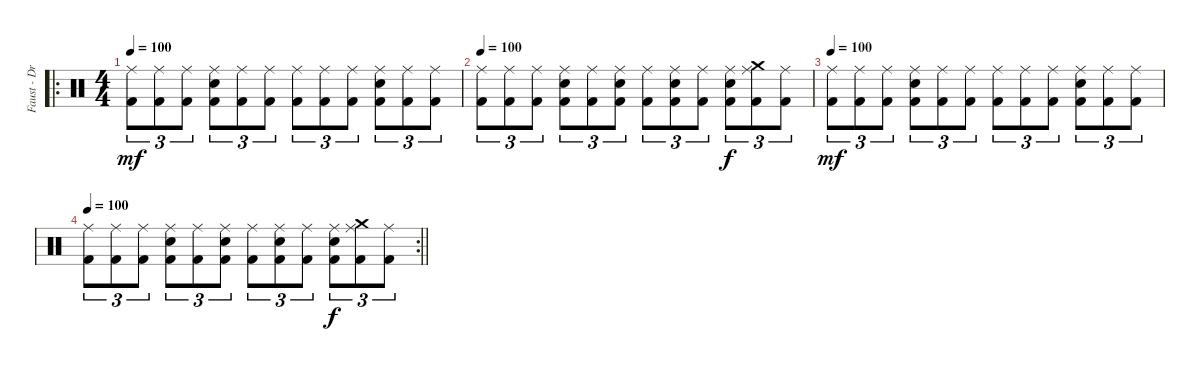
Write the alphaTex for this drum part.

\track ("Faust - Drums" "Faust - Dr") {instrument percussion}
\staff {score}
\articulation defaults
\ro
\ts (4 4)
\tempo 100
\clef neutral
\ks c
("Ride (middle)" "Kick (hit) 2").8{tu (3 2) dy mf} ("Ride (middle)" "Kick (hit) 2").8{tu (3 2)} ("Ride (middle)" "Kick (hit) 2").8{tu (3 2)} ("Electric Snare (hit)" "Ride (middle)" "Kick (hit) 2").8{tu (3 2)} ("Ride (middle)" "Kick (hit) 2").8{tu (3 2)} ("Ride (middle)" "Kick (hit) 2").8{tu (3 2)} ("Ride (middle)" "Kick (hit) 2").8{tu (3 2)} ("Ride (middle)" "Kick (hit) 2").8{tu (3 2)} ("Ride (middle)" "Kick (hit) 2").8{tu (3 2)} ("Electric Snare (hit)" "Ride (middle)" "Kick (hit) 2").8{tu (3 2)} ("Ride (middle)" "Kick (hit) 2").8{tu (3 2)} ("Ride (middle)" "Kick (hit) 2").8{tu (3 2)} |
\tempo 100
("Ride (middle)" "Kick (hit) 2").8{tu (3 2)} ("Ride (middle)" "Kick (hit) 2").8{tu (3 2)} ("Ride (middle)" "Kick (hit) 2").8{tu (3 2)} ("Electric Snare (hit)" "Ride (middle)" "Kick (hit) 2").8{tu (3 2)} ("Ride (middle)" "Kick (hit) 2").8{tu (3 2)} ("Electric Snare (hit)" "Ride (middle)" "Kick (hit) 2").8{tu (3 2)} ("Ride (middle)" "Kick (hit) 2").8{tu (3 2)} ("Electric Snare (hit)" "Ride (middle)" "Kick (hit) 2").8{tu (3 2)} ("Ride (middle)" "Kick (hit) 2").8{tu (3 2)} ("Electric Snare (hit)" "Ride (middle)" "Kick (hit) 2").8{tu (3 2) dy f} ("Crash medium (hit)" "Ride (middle)" "Kick (hit) 2").8{tu (3 2)} ("Ride (middle)" "Kick (hit) 2").8{tu (3 2)} |
\tempo 100
("Ride (middle)" "Kick (hit) 2").8{tu (3 2) dy mf} ("Ride (middle)" "Kick (hit) 2").8{tu (3 2)} ("Ride (middle)" "Kick (hit) 2").8{tu (3 2)} ("Electric Snare (hit)" "Ride (middle)" "Kick (hit) 2").8{tu (3 2)} ("Ride (middle)" "Kick (hit) 2").8{tu (3 2)} ("Ride (middle)" "Kick (hit) 2").8{tu (3 2)} ("Ride (middle)" "Kick (hit) 2").8{tu (3 2)} ("Ride (middle)" "Kick (hit) 2").8{tu (3 2)} ("Ride (middle)" "Kick (hit) 2").8{tu (3 2)} ("Electric Snare (hit)" "Ride (middle)" "Kick (hit) 2").8{tu (3 2)} ("Ride (middle)" "Kick (hit) 2").8{tu (3 2)} ("Ride (middle)" "Kick (hit) 2").8{tu (3 2)} |
\rc 2
\tempo 100
\barLineRight lightlight
("Ride (middle)" "Kick (hit) 2").8{tu (3 2)} ("Ride (middle)" "Kick (hit) 2").8{tu (3 2)} ("Ride (middle)" "Kick (hit) 2").8{tu (3 2)} ("Electric Snare (hit)" "Ride (middle)" "Kick (hit) 2").8{tu (3 2)} ("Ride (middle)" "Kick (hit) 2").8{tu (3 2)} ("Electric Snare (hit)" "Ride (middle)" "Kick (hit) 2").8{tu (3 2)} ("Ride (middle)" "Kick (hit) 2").8{tu (3 2)} ("Electric Snare (hit)" "Ride (middle)" "Kick (hit) 2").8{tu (3 2)} ("Ride (middle)" "Kick (hit) 2").8{tu (3 2)} ("Electric Snare (hit)" "Ride (middle)" "Kick (hit) 2").8{tu (3 2) dy f} ("Crash medium (hit)" "Ride (middle)" "Kick (hit) 2").8{tu (3 2)} ("Ride (middle)" "Kick (hit) 2").8{tu (3 2)}
